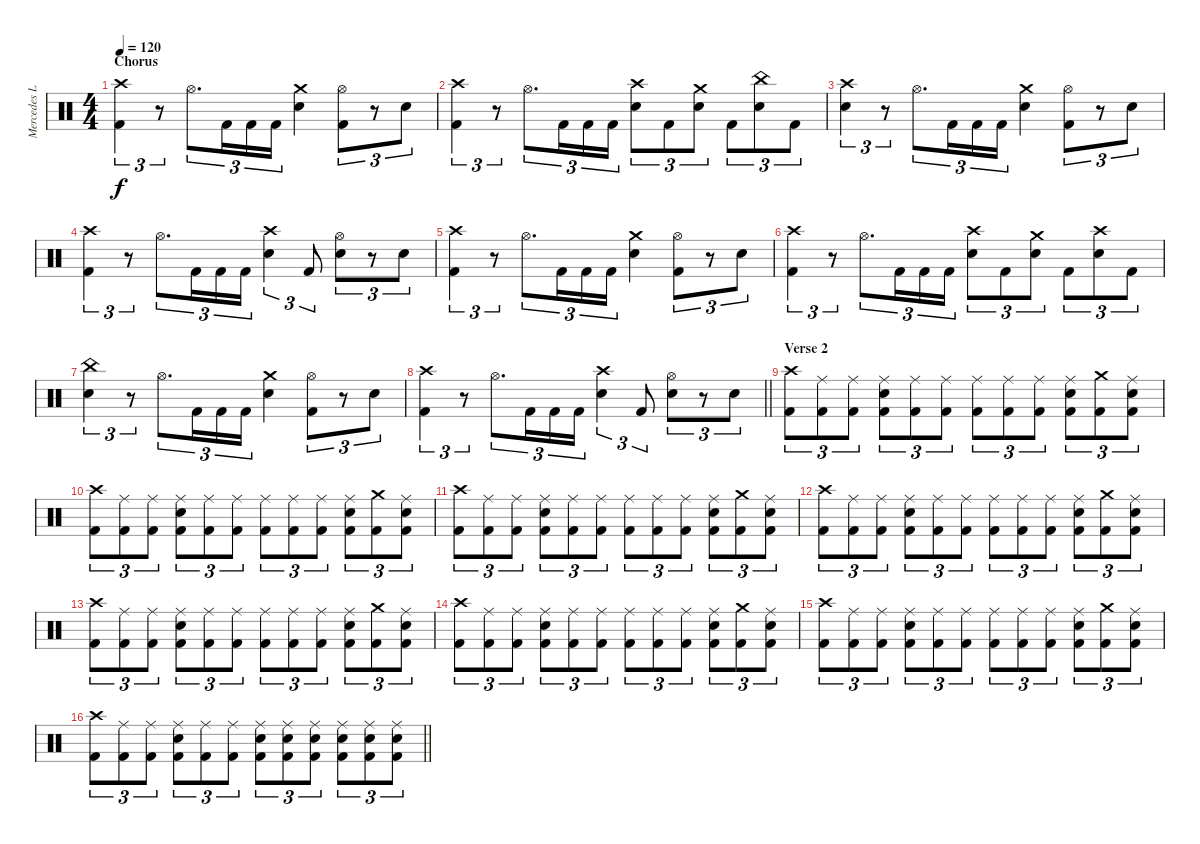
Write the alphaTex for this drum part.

\track ("Mercedes Lander" "Mercedes L") {instrument percussion}
\staff {score}
\articulation defaults
\ts (4 4)
\section ("" "Chorus")
\tempo 120
\clef neutral
\ks c
("Crash high (hit)" "Kick (hit) 2").4{tu (3 2) dy f} r.8{tu (3 2)} "Hi-Hat (open)".8{d tu (3 2)} "Kick (hit) 2".16{tu (3 2)} "Kick (hit) 2".16{tu (3 2)} "Kick (hit) 2".16{tu (3 2)} ("Crash medium (hit)" "Snare (hit) 2").4 ("Hi-Hat (open)" "Kick (hit) 2").8{tu (3 2)} r.8{tu (3 2)} "Snare (hit) 2".8{tu (3 2)} |
("Crash high (hit)" "Kick (hit) 2").4{tu (3 2)} r.8{tu (3 2)} "Hi-Hat (open)".8{d tu (3 2)} "Kick (hit) 2".16{tu (3 2)} "Kick (hit) 2".16{tu (3 2)} "Kick (hit) 2".16{tu (3 2)} ("Crash high (hit)" "Snare (hit) 2").8{tu (3 2)} "Kick (hit) 2".8{tu (3 2)} ("Crash medium (hit)" "Snare (hit) 2").8{tu (3 2)} "Kick (hit) 2".8{tu (3 2)} ("China (hit)" "Snare (hit) 2").8{tu (3 2)} "Kick (hit) 2".8{tu (3 2)} |
("Crash high (hit)" "Snare (hit) 2").4{tu (3 2)} r.8{tu (3 2)} "Hi-Hat (open)".8{d tu (3 2)} "Kick (hit) 2".16{tu (3 2)} "Kick (hit) 2".16{tu (3 2)} "Kick (hit) 2".16{tu (3 2)} ("Crash medium (hit)" "Snare (hit) 2").4 ("Hi-Hat (open)" "Kick (hit) 2").8{tu (3 2)} r.8{tu (3 2)} "Snare (hit) 2".8{tu (3 2)} |
("Crash high (hit)" "Kick (hit) 2").4{tu (3 2)} r.8{tu (3 2)} "Hi-Hat (open)".8{d tu (3 2)} "Kick (hit) 2".16{tu (3 2)} "Kick (hit) 2".16{tu (3 2)} "Kick (hit) 2".16{tu (3 2)} ("Crash high (hit)" "Snare (hit) 2").4{tu (3 2)} "Kick (hit) 2".8{tu (3 2)} ("Hi-Hat (open)" "Snare (hit) 2").8{tu (3 2)} r.8{tu (3 2)} "Snare (hit) 2".8{tu (3 2)} |
("Crash high (hit)" "Kick (hit) 2").4{tu (3 2)} r.8{tu (3 2)} "Hi-Hat (open)".8{d tu (3 2)} "Kick (hit) 2".16{tu (3 2)} "Kick (hit) 2".16{tu (3 2)} "Kick (hit) 2".16{tu (3 2)} ("Crash medium (hit)" "Snare (hit) 2").4 ("Hi-Hat (open)" "Kick (hit) 2").8{tu (3 2)} r.8{tu (3 2)} "Snare (hit) 2".8{tu (3 2)} |
("Crash high (hit)" "Kick (hit) 2").4{tu (3 2)} r.8{tu (3 2)} "Hi-Hat (open)".8{d tu (3 2)} "Kick (hit) 2".16{tu (3 2)} "Kick (hit) 2".16{tu (3 2)} "Kick (hit) 2".16{tu (3 2)} ("Crash high (hit)" "Snare (hit) 2").8{tu (3 2)} "Kick (hit) 2".8{tu (3 2)} ("Crash medium (hit)" "Snare (hit) 2").8{tu (3 2)} "Kick (hit) 2".8{tu (3 2)} ("Crash high (hit)" "Snare (hit) 2").8{tu (3 2)} "Kick (hit) 2".8{tu (3 2)} |
("China (hit)" "Snare (hit) 2").4{tu (3 2)} r.8{tu (3 2)} "Hi-Hat (open)".8{d tu (3 2)} "Kick (hit) 2".16{tu (3 2)} "Kick (hit) 2".16{tu (3 2)} "Kick (hit) 2".16{tu (3 2)} ("Crash medium (hit)" "Snare (hit) 2").4 ("Hi-Hat (open)" "Kick (hit) 2").8{tu (3 2)} r.8{tu (3 2)} "Snare (hit) 2".8{tu (3 2)} |
\barLineRight lightlight
("Crash high (hit)" "Kick (hit) 2").4{tu (3 2)} r.8{tu (3 2)} "Hi-Hat (open)".8{d tu (3 2)} "Kick (hit) 2".16{tu (3 2)} "Kick (hit) 2".16{tu (3 2)} "Kick (hit) 2".16{tu (3 2)} ("Crash high (hit)" "Snare (hit) 2").4{tu (3 2)} "Kick (hit) 2".8{tu (3 2)} ("Hi-Hat (open)" "Snare (hit) 2").8{tu (3 2)} r.8{tu (3 2)} "Snare (hit) 2".8{tu (3 2)} |
\section ("" "Verse 2")
("Crash high (hit)" "Kick (hit) 2").8{tu (3 2)} ("Ride (middle)" "Kick (hit) 2").8{tu (3 2)} ("Ride (middle)" "Kick (hit) 2").8{tu (3 2)} ("Ride (middle)" "Snare (hit) 2" "Kick (hit) 2").8{tu (3 2)} ("Ride (middle)" "Kick (hit) 2").8{tu (3 2)} ("Ride (middle)" "Kick (hit) 2").8{tu (3 2)} ("Ride (middle)" "Kick (hit) 2").8{tu (3 2)} ("Ride (middle)" "Kick (hit) 2").8{tu (3 2)} ("Ride (middle)" "Kick (hit) 2").8{tu (3 2)} ("Ride (middle)" "Snare (hit) 2" "Kick (hit) 2").8{tu (3 2)} ("Crash medium (hit)" "Kick (hit) 2").8{tu (3 2)} ("Ride (middle)" "Snare (hit) 2" "Kick (hit) 2").8{tu (3 2)} |
("Crash high (hit)" "Kick (hit) 2").8{tu (3 2)} ("Ride (middle)" "Kick (hit) 2").8{tu (3 2)} ("Ride (middle)" "Kick (hit) 2").8{tu (3 2)} ("Ride (middle)" "Snare (hit) 2" "Kick (hit) 2").8{tu (3 2)} ("Ride (middle)" "Kick (hit) 2").8{tu (3 2)} ("Ride (middle)" "Kick (hit) 2").8{tu (3 2)} ("Ride (middle)" "Kick (hit) 2").8{tu (3 2)} ("Ride (middle)" "Kick (hit) 2").8{tu (3 2)} ("Ride (middle)" "Kick (hit) 2").8{tu (3 2)} ("Ride (middle)" "Snare (hit) 2" "Kick (hit) 2").8{tu (3 2)} ("Crash medium (hit)" "Kick (hit) 2").8{tu (3 2)} ("Ride (middle)" "Snare (hit) 2" "Kick (hit) 2").8{tu (3 2)} |
("Crash high (hit)" "Kick (hit) 2").8{tu (3 2)} ("Ride (middle)" "Kick (hit) 2").8{tu (3 2)} ("Ride (middle)" "Kick (hit) 2").8{tu (3 2)} ("Ride (middle)" "Snare (hit) 2" "Kick (hit) 2").8{tu (3 2)} ("Ride (middle)" "Kick (hit) 2").8{tu (3 2)} ("Ride (middle)" "Kick (hit) 2").8{tu (3 2)} ("Ride (middle)" "Kick (hit) 2").8{tu (3 2)} ("Ride (middle)" "Kick (hit) 2").8{tu (3 2)} ("Ride (middle)" "Kick (hit) 2").8{tu (3 2)} ("Ride (middle)" "Snare (hit) 2" "Kick (hit) 2").8{tu (3 2)} ("Crash medium (hit)" "Kick (hit) 2").8{tu (3 2)} ("Ride (middle)" "Snare (hit) 2" "Kick (hit) 2").8{tu (3 2)} |
("Crash high (hit)" "Kick (hit) 2").8{tu (3 2)} ("Ride (middle)" "Kick (hit) 2").8{tu (3 2)} ("Ride (middle)" "Kick (hit) 2").8{tu (3 2)} ("Ride (middle)" "Snare (hit) 2" "Kick (hit) 2").8{tu (3 2)} ("Ride (middle)" "Kick (hit) 2").8{tu (3 2)} ("Ride (middle)" "Kick (hit) 2").8{tu (3 2)} ("Ride (middle)" "Kick (hit) 2").8{tu (3 2)} ("Ride (middle)" "Kick (hit) 2").8{tu (3 2)} ("Ride (middle)" "Kick (hit) 2").8{tu (3 2)} ("Ride (middle)" "Snare (hit) 2" "Kick (hit) 2").8{tu (3 2)} ("Crash medium (hit)" "Kick (hit) 2").8{tu (3 2)} ("Ride (middle)" "Snare (hit) 2" "Kick (hit) 2").8{tu (3 2)} |
("Crash high (hit)" "Kick (hit) 2").8{tu (3 2)} ("Ride (middle)" "Kick (hit) 2").8{tu (3 2)} ("Ride (middle)" "Kick (hit) 2").8{tu (3 2)} ("Ride (middle)" "Snare (hit) 2" "Kick (hit) 2").8{tu (3 2)} ("Ride (middle)" "Kick (hit) 2").8{tu (3 2)} ("Ride (middle)" "Kick (hit) 2").8{tu (3 2)} ("Ride (middle)" "Kick (hit) 2").8{tu (3 2)} ("Ride (middle)" "Kick (hit) 2").8{tu (3 2)} ("Ride (middle)" "Kick (hit) 2").8{tu (3 2)} ("Ride (middle)" "Snare (hit) 2" "Kick (hit) 2").8{tu (3 2)} ("Crash medium (hit)" "Kick (hit) 2").8{tu (3 2)} ("Ride (middle)" "Snare (hit) 2" "Kick (hit) 2").8{tu (3 2)} |
("Crash high (hit)" "Kick (hit) 2").8{tu (3 2)} ("Ride (middle)" "Kick (hit) 2").8{tu (3 2)} ("Ride (middle)" "Kick (hit) 2").8{tu (3 2)} ("Ride (middle)" "Snare (hit) 2" "Kick (hit) 2").8{tu (3 2)} ("Ride (middle)" "Kick (hit) 2").8{tu (3 2)} ("Ride (middle)" "Kick (hit) 2").8{tu (3 2)} ("Ride (middle)" "Kick (hit) 2").8{tu (3 2)} ("Ride (middle)" "Kick (hit) 2").8{tu (3 2)} ("Ride (middle)" "Kick (hit) 2").8{tu (3 2)} ("Ride (middle)" "Snare (hit) 2" "Kick (hit) 2").8{tu (3 2)} ("Crash medium (hit)" "Kick (hit) 2").8{tu (3 2)} ("Ride (middle)" "Snare (hit) 2" "Kick (hit) 2").8{tu (3 2)} |
("Crash high (hit)" "Kick (hit) 2").8{tu (3 2)} ("Ride (middle)" "Kick (hit) 2").8{tu (3 2)} ("Ride (middle)" "Kick (hit) 2").8{tu (3 2)} ("Ride (middle)" "Snare (hit) 2" "Kick (hit) 2").8{tu (3 2)} ("Ride (middle)" "Kick (hit) 2").8{tu (3 2)} ("Ride (middle)" "Kick (hit) 2").8{tu (3 2)} ("Ride (middle)" "Kick (hit) 2").8{tu (3 2)} ("Ride (middle)" "Kick (hit) 2").8{tu (3 2)} ("Ride (middle)" "Kick (hit) 2").8{tu (3 2)} ("Ride (middle)" "Snare (hit) 2" "Kick (hit) 2").8{tu (3 2)} ("Crash medium (hit)" "Kick (hit) 2").8{tu (3 2)} ("Ride (middle)" "Snare (hit) 2" "Kick (hit) 2").8{tu (3 2)} |
\barLineRight lightlight
("Crash high (hit)" "Kick (hit) 2").8{tu (3 2)} ("Ride (middle)" "Kick (hit) 2").8{tu (3 2)} ("Ride (middle)" "Kick (hit) 2").8{tu (3 2)} ("Ride (middle)" "Snare (hit) 2" "Kick (hit) 2").8{tu (3 2)} ("Ride (middle)" "Kick (hit) 2").8{tu (3 2)} ("Ride (middle)" "Kick (hit) 2").8{tu (3 2)} ("Ride (middle)" "Snare (hit) 2" "Kick (hit) 2").8{tu (3 2)} ("Ride (middle)" "Snare (hit) 2" "Kick (hit) 2").8{tu (3 2)} ("Ride (middle)" "Snare (hit) 2" "Kick (hit) 2").8{tu (3 2)} ("Ride (middle)" "Snare (hit) 2" "Kick (hit) 2").8{tu (3 2)} ("Ride (middle)" "Snare (hit) 2" "Kick (hit) 2").8{tu (3 2)} ("Ride (middle)" "Snare (hit) 2" "Kick (hit) 2").8{tu (3 2)}
